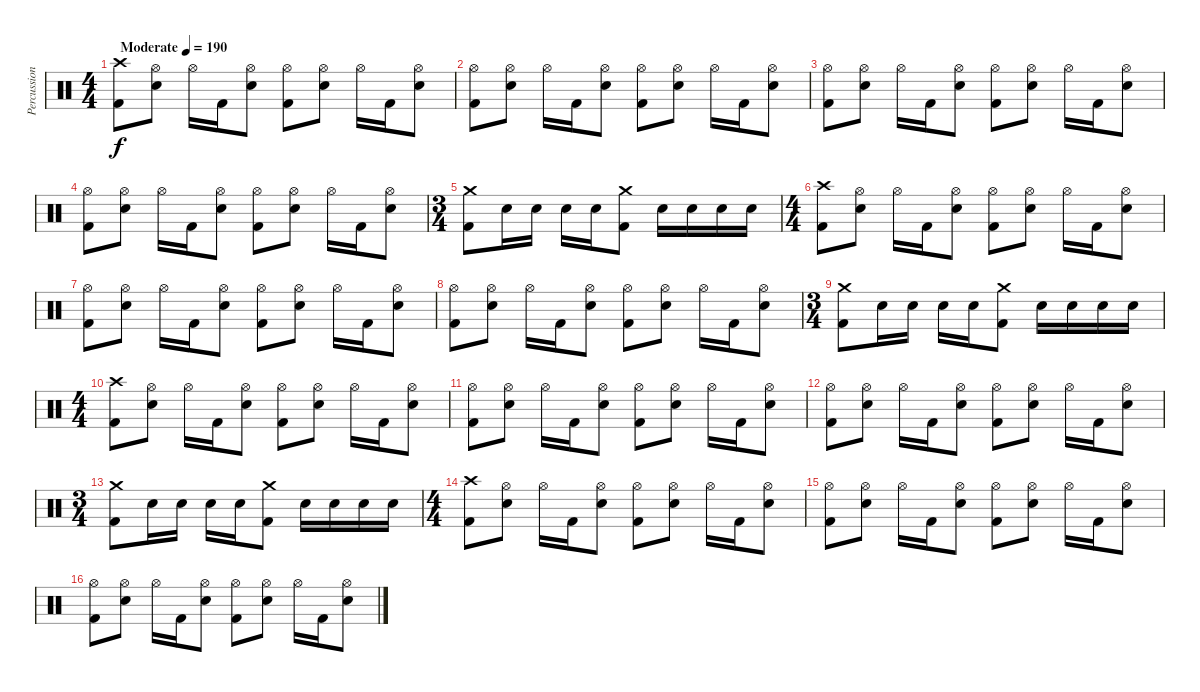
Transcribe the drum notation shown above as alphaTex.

\track ("Percussion" "Percussion") {instrument percussion}
\staff {score}
\articulation defaults
\ts (4 4)
\tempo (190 "Moderate")
\clef neutral
\ks c
("Crash high (hit)" "Kick (hit) 2").8{dy f} ("Hi-Hat (open)" "Electric Snare (hit)").8 "Hi-Hat (open)".16 "Kick (hit) 2".16 ("Hi-Hat (open)" "Electric Snare (hit)").8 ("Hi-Hat (open)" "Kick (hit) 2").8 ("Hi-Hat (open)" "Electric Snare (hit)").8 "Hi-Hat (open)".16 "Kick (hit) 2".16 ("Hi-Hat (open)" "Electric Snare (hit)").8 |
("Hi-Hat (open)" "Kick (hit) 2").8 ("Hi-Hat (open)" "Electric Snare (hit)").8 "Hi-Hat (open)".16 "Kick (hit) 2".16 ("Hi-Hat (open)" "Electric Snare (hit)").8 ("Hi-Hat (open)" "Kick (hit) 2").8 ("Hi-Hat (open)" "Electric Snare (hit)").8 "Hi-Hat (open)".16 "Kick (hit) 2".16 ("Hi-Hat (open)" "Electric Snare (hit)").8 |
("Hi-Hat (open)" "Kick (hit) 2").8 ("Hi-Hat (open)" "Electric Snare (hit)").8 "Hi-Hat (open)".16 "Kick (hit) 2".16 ("Hi-Hat (open)" "Electric Snare (hit)").8 ("Hi-Hat (open)" "Kick (hit) 2").8 ("Hi-Hat (open)" "Electric Snare (hit)").8 "Hi-Hat (open)".16 "Kick (hit) 2".16 ("Hi-Hat (open)" "Electric Snare (hit)").8 |
("Hi-Hat (open)" "Kick (hit) 2").8 ("Hi-Hat (open)" "Electric Snare (hit)").8 "Hi-Hat (open)".16 "Kick (hit) 2".16 ("Hi-Hat (open)" "Electric Snare (hit)").8 ("Hi-Hat (open)" "Kick (hit) 2").8 ("Hi-Hat (open)" "Electric Snare (hit)").8 "Hi-Hat (open)".16 "Kick (hit) 2".16 ("Hi-Hat (open)" "Electric Snare (hit)").8 |
\ts (3 4)
("Crash medium (hit)" "Kick (hit) 2").8 "Electric Snare (hit)".16 "Electric Snare (hit)".16 "Electric Snare (hit)".16 "Electric Snare (hit)".16 ("Crash medium (hit)" "Kick (hit) 2").8 "Electric Snare (hit)".16 "Electric Snare (hit)".16 "Electric Snare (hit)".16 "Electric Snare (hit)".16 |
\ts (4 4)
("Crash high (hit)" "Kick (hit) 2").8 ("Hi-Hat (open)" "Electric Snare (hit)").8 "Hi-Hat (open)".16 "Kick (hit) 2".16 ("Hi-Hat (open)" "Electric Snare (hit)").8 ("Hi-Hat (open)" "Kick (hit) 2").8 ("Hi-Hat (open)" "Electric Snare (hit)").8 "Hi-Hat (open)".16 "Kick (hit) 2".16 ("Hi-Hat (open)" "Electric Snare (hit)").8 |
("Hi-Hat (open)" "Kick (hit) 2").8 ("Hi-Hat (open)" "Electric Snare (hit)").8 "Hi-Hat (open)".16 "Kick (hit) 2".16 ("Hi-Hat (open)" "Electric Snare (hit)").8 ("Hi-Hat (open)" "Kick (hit) 2").8 ("Hi-Hat (open)" "Electric Snare (hit)").8 "Hi-Hat (open)".16 "Kick (hit) 2".16 ("Hi-Hat (open)" "Electric Snare (hit)").8 |
("Hi-Hat (open)" "Kick (hit) 2").8 ("Hi-Hat (open)" "Electric Snare (hit)").8 "Hi-Hat (open)".16 "Kick (hit) 2".16 ("Hi-Hat (open)" "Electric Snare (hit)").8 ("Hi-Hat (open)" "Kick (hit) 2").8 ("Hi-Hat (open)" "Electric Snare (hit)").8 "Hi-Hat (open)".16 "Kick (hit) 2".16 ("Hi-Hat (open)" "Electric Snare (hit)").8 |
\ts (3 4)
("Crash medium (hit)" "Kick (hit) 2").8 "Electric Snare (hit)".16 "Electric Snare (hit)".16 "Electric Snare (hit)".16 "Electric Snare (hit)".16 ("Crash medium (hit)" "Kick (hit) 2").8 "Electric Snare (hit)".16 "Electric Snare (hit)".16 "Electric Snare (hit)".16 "Electric Snare (hit)".16 |
\ts (4 4)
("Crash high (hit)" "Kick (hit) 2").8 ("Hi-Hat (open)" "Electric Snare (hit)").8 "Hi-Hat (open)".16 "Kick (hit) 2".16 ("Hi-Hat (open)" "Electric Snare (hit)").8 ("Hi-Hat (open)" "Kick (hit) 2").8 ("Hi-Hat (open)" "Electric Snare (hit)").8 "Hi-Hat (open)".16 "Kick (hit) 2".16 ("Hi-Hat (open)" "Electric Snare (hit)").8 |
("Hi-Hat (open)" "Kick (hit) 2").8 ("Hi-Hat (open)" "Electric Snare (hit)").8 "Hi-Hat (open)".16 "Kick (hit) 2".16 ("Hi-Hat (open)" "Electric Snare (hit)").8 ("Hi-Hat (open)" "Kick (hit) 2").8 ("Hi-Hat (open)" "Electric Snare (hit)").8 "Hi-Hat (open)".16 "Kick (hit) 2".16 ("Hi-Hat (open)" "Electric Snare (hit)").8 |
("Hi-Hat (open)" "Kick (hit) 2").8 ("Hi-Hat (open)" "Electric Snare (hit)").8 "Hi-Hat (open)".16 "Kick (hit) 2".16 ("Hi-Hat (open)" "Electric Snare (hit)").8 ("Hi-Hat (open)" "Kick (hit) 2").8 ("Hi-Hat (open)" "Electric Snare (hit)").8 "Hi-Hat (open)".16 "Kick (hit) 2".16 ("Hi-Hat (open)" "Electric Snare (hit)").8 |
\ts (3 4)
("Crash medium (hit)" "Kick (hit) 2").8 "Electric Snare (hit)".16 "Electric Snare (hit)".16 "Electric Snare (hit)".16 "Electric Snare (hit)".16 ("Crash medium (hit)" "Kick (hit) 2").8 "Electric Snare (hit)".16 "Electric Snare (hit)".16 "Electric Snare (hit)".16 "Electric Snare (hit)".16 |
\ts (4 4)
("Crash high (hit)" "Kick (hit) 2").8 ("Hi-Hat (open)" "Electric Snare (hit)").8 "Hi-Hat (open)".16 "Kick (hit) 2".16 ("Hi-Hat (open)" "Electric Snare (hit)").8 ("Hi-Hat (open)" "Kick (hit) 2").8 ("Hi-Hat (open)" "Electric Snare (hit)").8 "Hi-Hat (open)".16 "Kick (hit) 2".16 ("Hi-Hat (open)" "Electric Snare (hit)").8 |
("Hi-Hat (open)" "Kick (hit) 2").8 ("Hi-Hat (open)" "Electric Snare (hit)").8 "Hi-Hat (open)".16 "Kick (hit) 2".16 ("Hi-Hat (open)" "Electric Snare (hit)").8 ("Hi-Hat (open)" "Kick (hit) 2").8 ("Hi-Hat (open)" "Electric Snare (hit)").8 "Hi-Hat (open)".16 "Kick (hit) 2".16 ("Hi-Hat (open)" "Electric Snare (hit)").8 |
("Hi-Hat (open)" "Kick (hit) 2").8 ("Hi-Hat (open)" "Electric Snare (hit)").8 "Hi-Hat (open)".16 "Kick (hit) 2".16 ("Hi-Hat (open)" "Electric Snare (hit)").8 ("Hi-Hat (open)" "Kick (hit) 2").8 ("Hi-Hat (open)" "Electric Snare (hit)").8 "Hi-Hat (open)".16 "Kick (hit) 2".16 ("Hi-Hat (open)" "Electric Snare (hit)").8
